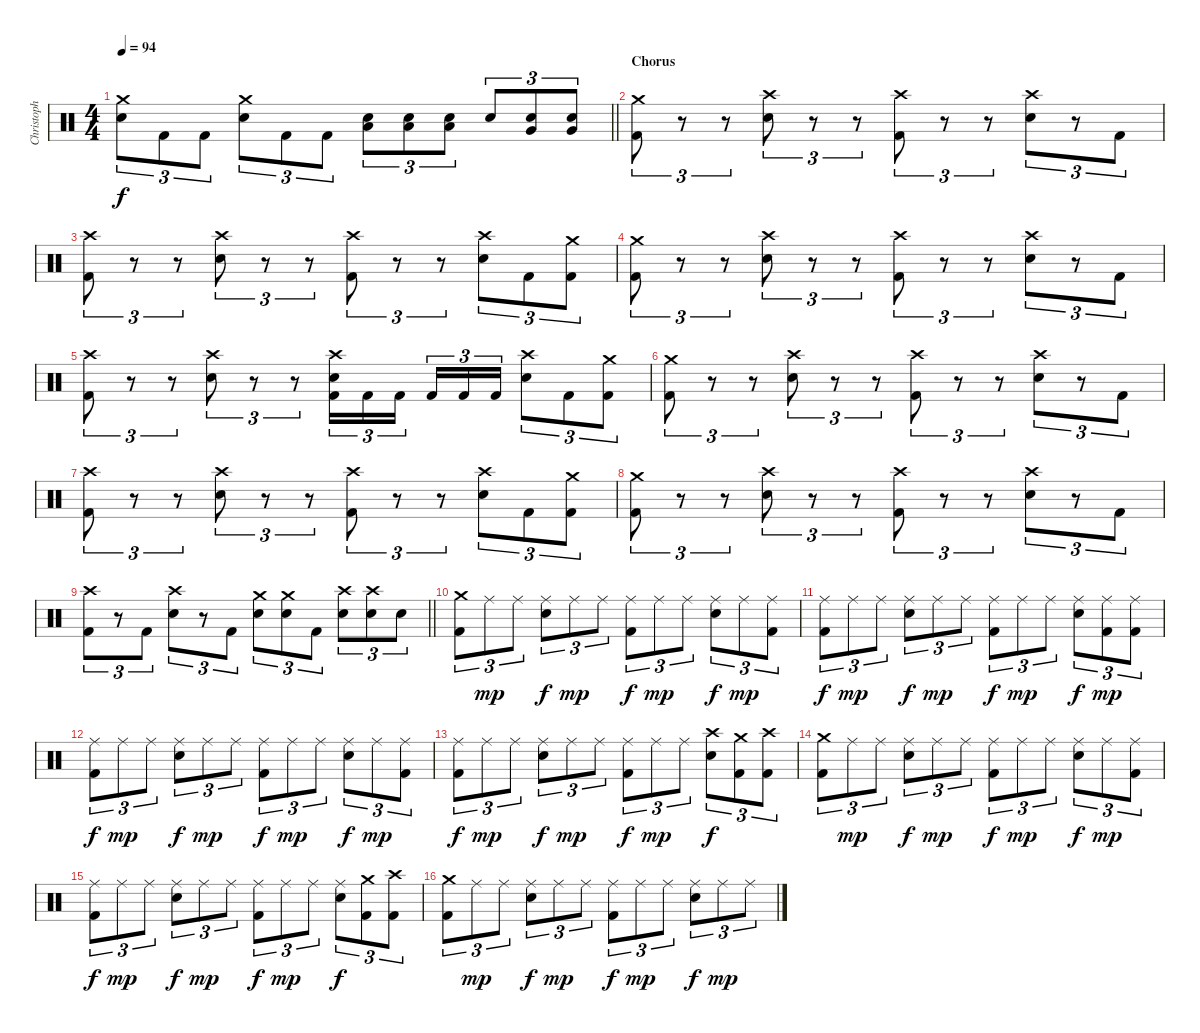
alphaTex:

\track ("Christoph Schneider [Drums]" "Christoph ") {instrument percussion}
\staff {score}
\articulation defaults
\ts (4 4)
\tempo 94
\clef neutral
\barLineRight lightlight
\ks c
("Crash medium (hit)" "Electric Snare (hit)").8{tu (3 2) dy f} "Kick (hit) 2".8{tu (3 2)} "Kick (hit) 2".8{tu (3 2)} ("Crash medium (hit)" "Electric Snare (hit)").8{tu (3 2)} "Kick (hit) 2".8{tu (3 2)} "Kick (hit) 2".8{tu (3 2)} ("Low Tom (hit)" "Electric Snare (hit)").8{tu (3 2)} ("Low Tom (hit)" "Electric Snare (hit)").8{tu (3 2)} ("Low Tom (hit)" "Electric Snare (hit)").8{tu (3 2)} "Electric Snare (hit)".8{tu (3 2)} ("Very Low Tom (hit)" "Electric Snare (hit)").8{tu (3 2)} ("Very Low Tom (hit)" "Electric Snare (hit)").8{tu (3 2)} |
\section ("" "Chorus")
("Crash medium (hit)" "Kick (hit) 2").8{tu (3 2)} r.8{tu (3 2)} r.8{tu (3 2)} ("Crash high (hit)" "Electric Snare (hit)").8{tu (3 2)} r.8{tu (3 2)} r.8{tu (3 2)} ("Crash high (hit)" "Kick (hit) 2").8{tu (3 2)} r.8{tu (3 2)} r.8{tu (3 2)} ("Crash high (hit)" "Electric Snare (hit)").8{tu (3 2)} r.8{tu (3 2)} "Kick (hit) 2".8{tu (3 2)} |
("Crash high (hit)" "Kick (hit) 2").8{tu (3 2)} r.8{tu (3 2)} r.8{tu (3 2)} ("Crash high (hit)" "Electric Snare (hit)").8{tu (3 2)} r.8{tu (3 2)} r.8{tu (3 2)} ("Crash high (hit)" "Kick (hit) 2").8{tu (3 2)} r.8{tu (3 2)} r.8{tu (3 2)} ("Crash high (hit)" "Electric Snare (hit)").8{tu (3 2)} "Kick (hit) 2".8{tu (3 2)} ("Crash medium (hit)" "Kick (hit) 2").8{tu (3 2)} |
("Crash medium (hit)" "Kick (hit) 2").8{tu (3 2)} r.8{tu (3 2)} r.8{tu (3 2)} ("Crash high (hit)" "Electric Snare (hit)").8{tu (3 2)} r.8{tu (3 2)} r.8{tu (3 2)} ("Crash high (hit)" "Kick (hit) 2").8{tu (3 2)} r.8{tu (3 2)} r.8{tu (3 2)} ("Crash high (hit)" "Electric Snare (hit)").8{tu (3 2)} r.8{tu (3 2)} "Kick (hit) 2".8{tu (3 2)} |
("Crash high (hit)" "Kick (hit) 2").8{tu (3 2)} r.8{tu (3 2)} r.8{tu (3 2)} ("Crash high (hit)" "Electric Snare (hit)").8{tu (3 2)} r.8{tu (3 2)} r.8{tu (3 2)} ("Crash high (hit)" "Electric Snare (hit)" "Kick (hit) 2").16{tu (3 2)} "Kick (hit) 2".16{tu (3 2)} "Kick (hit) 2".16{tu (3 2)} "Kick (hit) 2".16{tu (3 2)} "Kick (hit) 2".16{tu (3 2)} "Kick (hit) 2".16{tu (3 2)} ("Crash high (hit)" "Electric Snare (hit)").8{tu (3 2)} "Kick (hit) 2".8{tu (3 2)} ("Crash medium (hit)" "Kick (hit) 2").8{tu (3 2)} |
("Crash medium (hit)" "Kick (hit) 2").8{tu (3 2)} r.8{tu (3 2)} r.8{tu (3 2)} ("Crash high (hit)" "Electric Snare (hit)").8{tu (3 2)} r.8{tu (3 2)} r.8{tu (3 2)} ("Crash high (hit)" "Kick (hit) 2").8{tu (3 2)} r.8{tu (3 2)} r.8{tu (3 2)} ("Crash high (hit)" "Electric Snare (hit)").8{tu (3 2)} r.8{tu (3 2)} "Kick (hit) 2".8{tu (3 2)} |
("Crash high (hit)" "Kick (hit) 2").8{tu (3 2)} r.8{tu (3 2)} r.8{tu (3 2)} ("Crash high (hit)" "Electric Snare (hit)").8{tu (3 2)} r.8{tu (3 2)} r.8{tu (3 2)} ("Crash high (hit)" "Kick (hit) 2").8{tu (3 2)} r.8{tu (3 2)} r.8{tu (3 2)} ("Crash high (hit)" "Electric Snare (hit)").8{tu (3 2)} "Kick (hit) 2".8{tu (3 2)} ("Crash medium (hit)" "Kick (hit) 2").8{tu (3 2)} |
("Crash medium (hit)" "Kick (hit) 2").8{tu (3 2)} r.8{tu (3 2)} r.8{tu (3 2)} ("Crash high (hit)" "Electric Snare (hit)").8{tu (3 2)} r.8{tu (3 2)} r.8{tu (3 2)} ("Crash high (hit)" "Kick (hit) 2").8{tu (3 2)} r.8{tu (3 2)} r.8{tu (3 2)} ("Crash high (hit)" "Electric Snare (hit)").8{tu (3 2)} r.8{tu (3 2)} "Kick (hit) 2".8{tu (3 2)} |
\barLineRight lightlight
("Crash high (hit)" "Kick (hit) 2").8{tu (3 2)} r.8{tu (3 2)} "Kick (hit) 2".8{tu (3 2)} ("Crash high (hit)" "Electric Snare (hit)").8{tu (3 2)} r.8{tu (3 2)} "Kick (hit) 2".8{tu (3 2)} ("Crash medium (hit)" "Electric Snare (hit)").8{tu (3 2)} ("Crash medium (hit)" "Electric Snare (hit)").8{tu (3 2)} "Kick (hit) 2".8{tu (3 2)} ("Crash high (hit)" "Electric Snare (hit)").8{tu (3 2)} ("Crash high (hit)" "Electric Snare (hit)").8{tu (3 2)} "Electric Snare (hit)".8{tu (3 2)} |
\section ("" "")
("Crash medium (hit)" "Kick (hit) 2").8{tu (3 2)} "Ride (middle)".8{tu (3 2) dy mp} "Ride (middle)".8{tu (3 2)} ("Ride (middle)" "Electric Snare (hit)").8{tu (3 2) dy f} "Ride (middle)".8{tu (3 2) dy mp} "Ride (middle)".8{tu (3 2)} ("Ride (middle)" "Kick (hit) 2").8{tu (3 2) dy f} "Ride (middle)".8{tu (3 2) dy mp} "Ride (middle)".8{tu (3 2)} ("Ride (middle)" "Electric Snare (hit)").8{tu (3 2) dy f} "Ride (middle)".8{tu (3 2) dy mp} ("Ride (middle)" "Kick (hit) 2").8{tu (3 2)} |
("Ride (middle)" "Kick (hit) 2").8{tu (3 2) dy f} "Ride (middle)".8{tu (3 2) dy mp} "Ride (middle)".8{tu (3 2)} ("Ride (middle)" "Electric Snare (hit)").8{tu (3 2) dy f} "Ride (middle)".8{tu (3 2) dy mp} "Ride (middle)".8{tu (3 2)} ("Ride (middle)" "Kick (hit) 2").8{tu (3 2) dy f} "Ride (middle)".8{tu (3 2) dy mp} "Ride (middle)".8{tu (3 2)} ("Ride (middle)" "Electric Snare (hit)").8{tu (3 2) dy f} ("Ride (middle)" "Kick (hit) 2").8{tu (3 2) dy mp} ("Ride (middle)" "Kick (hit) 2").8{tu (3 2)} |
("Ride (middle)" "Kick (hit) 2").8{tu (3 2) dy f} "Ride (middle)".8{tu (3 2) dy mp} "Ride (middle)".8{tu (3 2)} ("Ride (middle)" "Electric Snare (hit)").8{tu (3 2) dy f} "Ride (middle)".8{tu (3 2) dy mp} "Ride (middle)".8{tu (3 2)} ("Ride (middle)" "Kick (hit) 2").8{tu (3 2) dy f} "Ride (middle)".8{tu (3 2) dy mp} "Ride (middle)".8{tu (3 2)} ("Ride (middle)" "Electric Snare (hit)").8{tu (3 2) dy f} "Ride (middle)".8{tu (3 2) dy mp} ("Ride (middle)" "Kick (hit) 2").8{tu (3 2)} |
("Ride (middle)" "Kick (hit) 2").8{tu (3 2) dy f} "Ride (middle)".8{tu (3 2) dy mp} "Ride (middle)".8{tu (3 2)} ("Ride (middle)" "Electric Snare (hit)").8{tu (3 2) dy f} "Ride (middle)".8{tu (3 2) dy mp} "Ride (middle)".8{tu (3 2)} ("Ride (middle)" "Kick (hit) 2").8{tu (3 2) dy f} "Ride (middle)".8{tu (3 2) dy mp} "Ride (middle)".8{tu (3 2)} ("Crash high (hit)" "Electric Snare (hit)").8{tu (3 2) dy f} ("Crash medium (hit)" "Kick (hit) 2").8{tu (3 2)} ("Crash high (hit)" "Kick (hit) 2").8{tu (3 2)} |
("Crash medium (hit)" "Kick (hit) 2").8{tu (3 2)} "Ride (middle)".8{tu (3 2) dy mp} "Ride (middle)".8{tu (3 2)} ("Ride (middle)" "Electric Snare (hit)").8{tu (3 2) dy f} "Ride (middle)".8{tu (3 2) dy mp} "Ride (middle)".8{tu (3 2)} ("Ride (middle)" "Kick (hit) 2").8{tu (3 2) dy f} "Ride (middle)".8{tu (3 2) dy mp} "Ride (middle)".8{tu (3 2)} ("Ride (middle)" "Electric Snare (hit)").8{tu (3 2) dy f} "Ride (middle)".8{tu (3 2) dy mp} ("Ride (middle)" "Kick (hit) 2").8{tu (3 2)} |
("Ride (middle)" "Kick (hit) 2").8{tu (3 2) dy f} "Ride (middle)".8{tu (3 2) dy mp} "Ride (middle)".8{tu (3 2)} ("Ride (middle)" "Electric Snare (hit)").8{tu (3 2) dy f} "Ride (middle)".8{tu (3 2) dy mp} "Ride (middle)".8{tu (3 2)} ("Ride (middle)" "Kick (hit) 2").8{tu (3 2) dy f} "Ride (middle)".8{tu (3 2) dy mp} "Ride (middle)".8{tu (3 2)} ("Ride (middle)" "Electric Snare (hit)").8{tu (3 2) dy f} ("Crash medium (hit)" "Kick (hit) 2").8{tu (3 2)} ("Crash high (hit)" "Kick (hit) 2").8{tu (3 2)} |
("Crash medium (hit)" "Kick (hit) 2").8{tu (3 2)} "Ride (middle)".8{tu (3 2) dy mp} "Ride (middle)".8{tu (3 2)} ("Ride (middle)" "Electric Snare (hit)").8{tu (3 2) dy f} "Ride (middle)".8{tu (3 2) dy mp} "Ride (middle)".8{tu (3 2)} ("Ride (middle)" "Kick (hit) 2").8{tu (3 2) dy f} "Ride (middle)".8{tu (3 2) dy mp} "Ride (middle)".8{tu (3 2)} ("Ride (middle)" "Electric Snare (hit)").8{tu (3 2) dy f} "Ride (middle)".8{tu (3 2) dy mp} "Ride (middle)".8{tu (3 2)}
